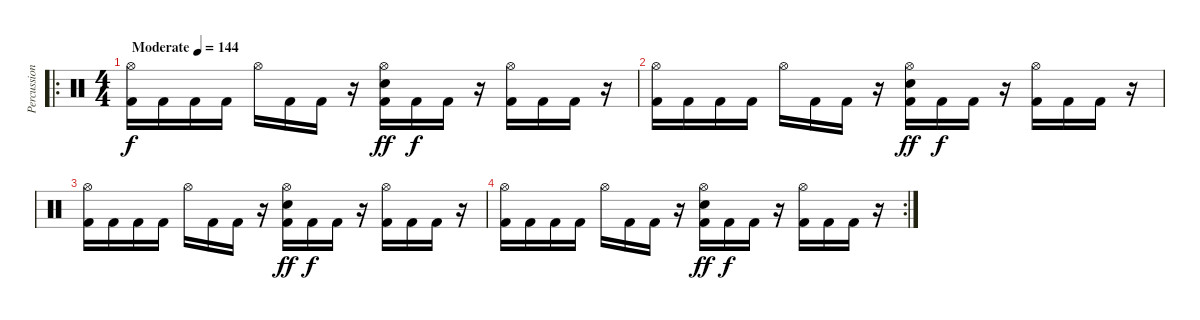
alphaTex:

\track ("Percussion" "Percussion") {instrument percussion}
\staff {score}
\articulation defaults
\ro
\ts (4 4)
\tempo (144 "Moderate")
\clef neutral
\ks c
("Hi-Hat (open)" "Kick (hit) 2").16{dy f} "Kick (hit) 2".16 "Kick (hit) 2".16 "Kick (hit) 2".16 "Hi-Hat (open)".16 "Kick (hit) 2".16 "Kick (hit) 2".16 r.16 ("Hi-Hat (open)" "Electric Snare (hit)" "Kick (hit) 2").16{dy ff} "Kick (hit) 2".16{dy f} "Kick (hit) 2".16 r.16 ("Hi-Hat (open)" "Kick (hit) 2").16 "Kick (hit) 2".16 "Kick (hit) 2".16 r.16 |
("Hi-Hat (open)" "Kick (hit) 2").16 "Kick (hit) 2".16 "Kick (hit) 2".16 "Kick (hit) 2".16 "Hi-Hat (open)".16 "Kick (hit) 2".16 "Kick (hit) 2".16 r.16 ("Hi-Hat (open)" "Electric Snare (hit)" "Kick (hit) 2").16{dy ff} "Kick (hit) 2".16{dy f} "Kick (hit) 2".16 r.16 ("Hi-Hat (open)" "Kick (hit) 2").16 "Kick (hit) 2".16 "Kick (hit) 2".16 r.16 |
("Hi-Hat (open)" "Kick (hit) 2").16 "Kick (hit) 2".16 "Kick (hit) 2".16 "Kick (hit) 2".16 "Hi-Hat (open)".16 "Kick (hit) 2".16 "Kick (hit) 2".16 r.16 ("Hi-Hat (open)" "Electric Snare (hit)" "Kick (hit) 2").16{dy ff} "Kick (hit) 2".16{dy f} "Kick (hit) 2".16 r.16 ("Hi-Hat (open)" "Kick (hit) 2").16 "Kick (hit) 2".16 "Kick (hit) 2".16 r.16 |
\rc 2
("Hi-Hat (open)" "Kick (hit) 2").16 "Kick (hit) 2".16 "Kick (hit) 2".16 "Kick (hit) 2".16 "Hi-Hat (open)".16 "Kick (hit) 2".16 "Kick (hit) 2".16 r.16 ("Hi-Hat (open)" "Electric Snare (hit)" "Kick (hit) 2").16{dy ff} "Kick (hit) 2".16{dy f} "Kick (hit) 2".16 r.16 ("Hi-Hat (open)" "Kick (hit) 2").16 "Kick (hit) 2".16 "Kick (hit) 2".16 r.16
